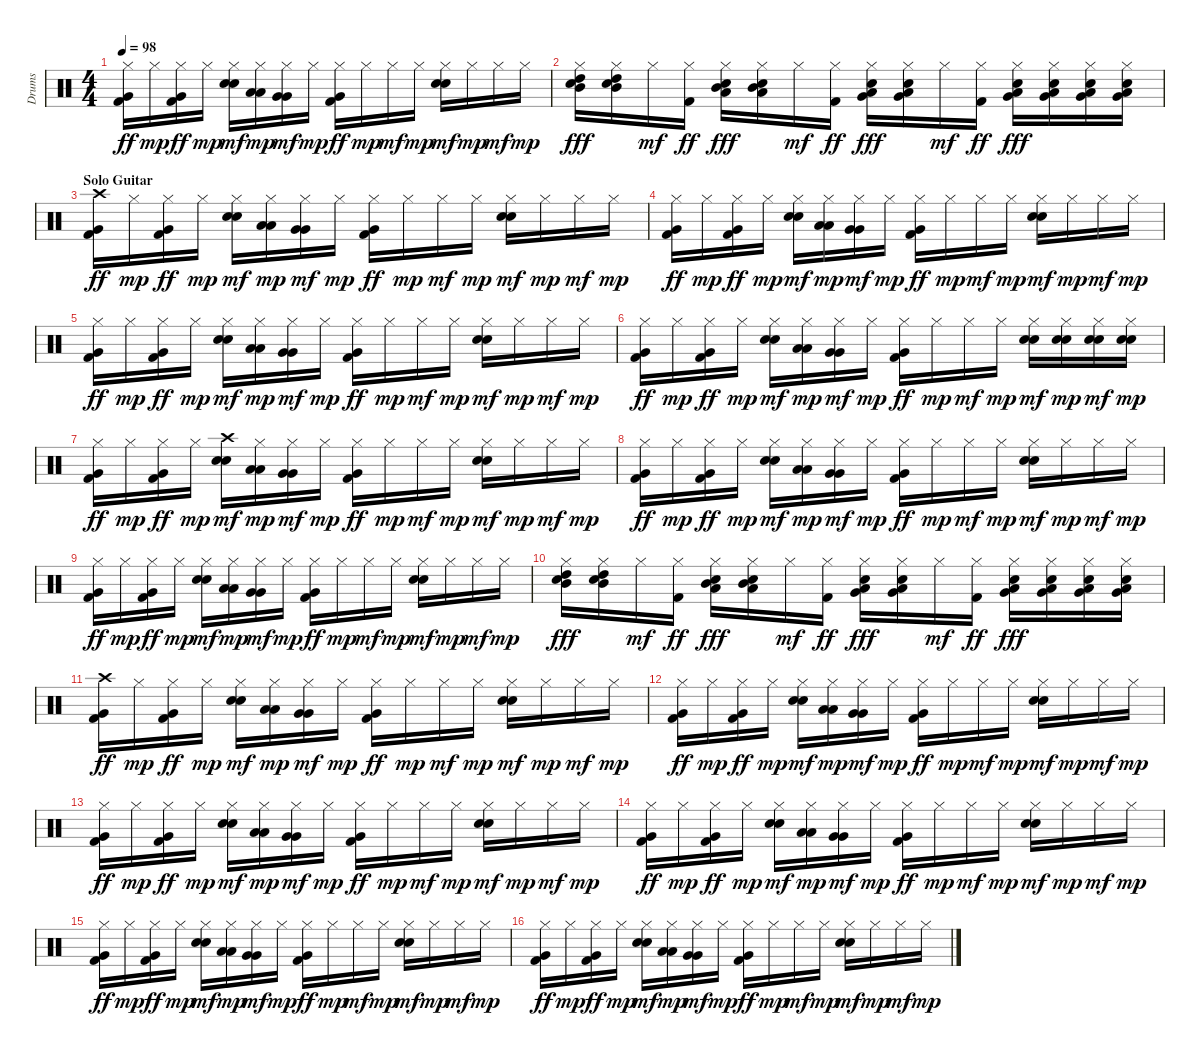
\track ("Drums" "Drums") {instrument percussion}
\staff {score}
\articulation defaults
\ts (4 4)
\tempo 98
\clef neutral
\ks c
("Hi-Hat (closed)" "Very Low Tom (hit)" "Kick (hit) 2").16{dy ff} "Hi-Hat (closed)".16{dy mp} ("Hi-Hat (closed)" "Very Low Tom (hit)" "Kick (hit) 2").16{dy ff} "Hi-Hat (closed)".16{dy mp} ("Hi-Hat (closed)" "Electric Snare (hit)" "Snare (hit) 2").16{dy mf} ("Hi-Hat (closed)" "Low Tom (hit)" "Low Tom (hit)").16{dy mp} ("Hi-Hat (closed)" "Very Low Tom (hit)" "Very Low Tom (hit)").16{dy mf} "Hi-Hat (closed)".16{dy mp} ("Hi-Hat (closed)" "Very Low Tom (hit)" "Kick (hit) 2").16{dy ff} "Hi-Hat (closed)".16{dy mp} "Hi-Hat (closed)".16{dy mf} "Hi-Hat (closed)".16{dy mp} ("Hi-Hat (closed)" "Electric Snare (hit)" "Snare (hit) 2").16{dy mf} "Hi-Hat (closed)".16{dy mp} "Hi-Hat (closed)".16{dy mf} "Hi-Hat (closed)".16{dy mp} |
("Hi-Hat (closed)" "High Tom (hit)" "Mid Tom (hit)" "Electric Snare (hit)").16{dy fff} ("Hi-Hat (closed)" "High Tom (hit)" "Mid Tom (hit)" "Electric Snare (hit)").16 "Hi-Hat (closed)".16{dy mf} ("Hi-Hat (closed)" "Kick (hit) 2").16{dy ff} ("Hi-Hat (closed)" "Mid Tom (hit)" "Low Tom (hit)" "Electric Snare (hit)").16{dy fff} ("Hi-Hat (closed)" "Mid Tom (hit)" "Low Tom (hit)" "Electric Snare (hit)").16 "Hi-Hat (closed)".16{dy mf} ("Hi-Hat (closed)" "Kick (hit) 2").16{dy ff} ("Hi-Hat (closed)" "Low Tom (hit)" "Very Low Tom (hit)" "Electric Snare (hit)").16{dy fff} ("Hi-Hat (closed)" "Low Tom (hit)" "Very Low Tom (hit)" "Electric Snare (hit)").16 "Hi-Hat (closed)".16{dy mf} ("Hi-Hat (closed)" "Kick (hit) 2").16{dy ff} ("Hi-Hat (closed)" "Very Low Tom (hit)" "Low Floor Tom (hit)" "Electric Snare (hit)").16{dy fff} ("Hi-Hat (closed)" "Very Low Tom (hit)" "Low Floor Tom (hit)" "Electric Snare (hit)").16 ("Hi-Hat (closed)" "Very Low Tom (hit)" "Low Floor Tom (hit)" "Electric Snare (hit)").16 ("Hi-Hat (closed)" "Very Low Tom (hit)" "Low Floor Tom (hit)" "Electric Snare (hit)").16 |
\section ("" "Solo Guitar")
("Crash high (hit)" "Very Low Tom (hit)" "Kick (hit) 2").16{dy ff} "Hi-Hat (closed)".16{dy mp} ("Hi-Hat (closed)" "Very Low Tom (hit)" "Kick (hit) 2").16{dy ff} "Hi-Hat (closed)".16{dy mp} ("Hi-Hat (closed)" "Electric Snare (hit)" "Snare (hit) 2").16{dy mf} ("Hi-Hat (closed)" "Low Tom (hit)" "Low Tom (hit)").16{dy mp} ("Hi-Hat (closed)" "Very Low Tom (hit)" "Very Low Tom (hit)").16{dy mf} "Hi-Hat (closed)".16{dy mp} ("Hi-Hat (closed)" "Very Low Tom (hit)" "Kick (hit) 2").16{dy ff} "Hi-Hat (closed)".16{dy mp} "Hi-Hat (closed)".16{dy mf} "Hi-Hat (closed)".16{dy mp} ("Hi-Hat (closed)" "Electric Snare (hit)" "Snare (hit) 2").16{dy mf} "Hi-Hat (closed)".16{dy mp} "Hi-Hat (closed)".16{dy mf} "Hi-Hat (closed)".16{dy mp} |
("Hi-Hat (closed)" "Very Low Tom (hit)" "Kick (hit) 2").16{dy ff} "Hi-Hat (closed)".16{dy mp} ("Hi-Hat (closed)" "Very Low Tom (hit)" "Kick (hit) 2").16{dy ff} "Hi-Hat (closed)".16{dy mp} ("Hi-Hat (closed)" "Electric Snare (hit)" "Snare (hit) 2").16{dy mf} ("Hi-Hat (closed)" "Low Tom (hit)" "Low Tom (hit)").16{dy mp} ("Hi-Hat (closed)" "Very Low Tom (hit)" "Very Low Tom (hit)").16{dy mf} "Hi-Hat (closed)".16{dy mp} ("Hi-Hat (closed)" "Very Low Tom (hit)" "Kick (hit) 2").16{dy ff} "Hi-Hat (closed)".16{dy mp} "Hi-Hat (closed)".16{dy mf} "Hi-Hat (closed)".16{dy mp} ("Hi-Hat (closed)" "Electric Snare (hit)" "Snare (hit) 2").16{dy mf} "Hi-Hat (closed)".16{dy mp} "Hi-Hat (closed)".16{dy mf} "Hi-Hat (closed)".16{dy mp} |
("Hi-Hat (closed)" "Very Low Tom (hit)" "Kick (hit) 2").16{dy ff} "Hi-Hat (closed)".16{dy mp} ("Hi-Hat (closed)" "Very Low Tom (hit)" "Kick (hit) 2").16{dy ff} "Hi-Hat (closed)".16{dy mp} ("Hi-Hat (closed)" "Electric Snare (hit)" "Snare (hit) 2").16{dy mf} ("Hi-Hat (closed)" "Low Tom (hit)" "Low Tom (hit)").16{dy mp} ("Hi-Hat (closed)" "Very Low Tom (hit)" "Very Low Tom (hit)").16{dy mf} "Hi-Hat (closed)".16{dy mp} ("Hi-Hat (closed)" "Very Low Tom (hit)" "Kick (hit) 2").16{dy ff} "Hi-Hat (closed)".16{dy mp} "Hi-Hat (closed)".16{dy mf} "Hi-Hat (closed)".16{dy mp} ("Hi-Hat (closed)" "Electric Snare (hit)" "Snare (hit) 2").16{dy mf} "Hi-Hat (closed)".16{dy mp} "Hi-Hat (closed)".16{dy mf} "Hi-Hat (closed)".16{dy mp} |
("Hi-Hat (closed)" "Very Low Tom (hit)" "Kick (hit) 2").16{dy ff} "Hi-Hat (closed)".16{dy mp} ("Hi-Hat (closed)" "Very Low Tom (hit)" "Kick (hit) 2").16{dy ff} "Hi-Hat (closed)".16{dy mp} ("Hi-Hat (closed)" "Electric Snare (hit)" "Snare (hit) 2").16{dy mf} ("Hi-Hat (closed)" "Low Tom (hit)" "Low Tom (hit)").16{dy mp} ("Hi-Hat (closed)" "Very Low Tom (hit)" "Very Low Tom (hit)").16{dy mf} "Hi-Hat (closed)".16{dy mp} ("Hi-Hat (closed)" "Very Low Tom (hit)" "Kick (hit) 2").16{dy ff} "Hi-Hat (closed)".16{dy mp} "Hi-Hat (closed)".16{dy mf} "Hi-Hat (closed)".16{dy mp} ("Hi-Hat (closed)" "Electric Snare (hit)" "Snare (hit) 2").16{dy mf} ("Hi-Hat (closed)" "Electric Snare (hit)" "Snare (hit) 2").16{dy mp} ("Hi-Hat (closed)" "Electric Snare (hit)" "Snare (hit) 2").16{dy mf} ("Hi-Hat (closed)" "Electric Snare (hit)" "Snare (hit) 2").16{dy mp} |
("Hi-Hat (closed)" "Very Low Tom (hit)" "Kick (hit) 2").16{dy ff} "Hi-Hat (closed)".16{dy mp} ("Hi-Hat (closed)" "Very Low Tom (hit)" "Kick (hit) 2").16{dy ff} "Hi-Hat (closed)".16{dy mp} ("Crash high (hit)" "Electric Snare (hit)" "Snare (hit) 2").16{dy mf} ("Hi-Hat (closed)" "Low Tom (hit)" "Low Tom (hit)").16{dy mp} ("Hi-Hat (closed)" "Very Low Tom (hit)" "Very Low Tom (hit)").16{dy mf} "Hi-Hat (closed)".16{dy mp} ("Hi-Hat (closed)" "Very Low Tom (hit)" "Kick (hit) 2").16{dy ff} "Hi-Hat (closed)".16{dy mp} "Hi-Hat (closed)".16{dy mf} "Hi-Hat (closed)".16{dy mp} ("Hi-Hat (closed)" "Electric Snare (hit)" "Snare (hit) 2").16{dy mf} "Hi-Hat (closed)".16{dy mp} "Hi-Hat (closed)".16{dy mf} "Hi-Hat (closed)".16{dy mp} |
("Hi-Hat (closed)" "Very Low Tom (hit)" "Kick (hit) 2").16{dy ff} "Hi-Hat (closed)".16{dy mp} ("Hi-Hat (closed)" "Very Low Tom (hit)" "Kick (hit) 2").16{dy ff} "Hi-Hat (closed)".16{dy mp} ("Hi-Hat (closed)" "Electric Snare (hit)" "Snare (hit) 2").16{dy mf} ("Hi-Hat (closed)" "Low Tom (hit)" "Low Tom (hit)").16{dy mp} ("Hi-Hat (closed)" "Very Low Tom (hit)" "Very Low Tom (hit)").16{dy mf} "Hi-Hat (closed)".16{dy mp} ("Hi-Hat (closed)" "Very Low Tom (hit)" "Kick (hit) 2").16{dy ff} "Hi-Hat (closed)".16{dy mp} "Hi-Hat (closed)".16{dy mf} "Hi-Hat (closed)".16{dy mp} ("Hi-Hat (closed)" "Electric Snare (hit)" "Snare (hit) 2").16{dy mf} "Hi-Hat (closed)".16{dy mp} "Hi-Hat (closed)".16{dy mf} "Hi-Hat (closed)".16{dy mp} |
("Hi-Hat (closed)" "Very Low Tom (hit)" "Kick (hit) 2").16{dy ff} "Hi-Hat (closed)".16{dy mp} ("Hi-Hat (closed)" "Very Low Tom (hit)" "Kick (hit) 2").16{dy ff} "Hi-Hat (closed)".16{dy mp} ("Hi-Hat (closed)" "Electric Snare (hit)" "Snare (hit) 2").16{dy mf} ("Hi-Hat (closed)" "Low Tom (hit)" "Low Tom (hit)").16{dy mp} ("Hi-Hat (closed)" "Very Low Tom (hit)" "Very Low Tom (hit)").16{dy mf} "Hi-Hat (closed)".16{dy mp} ("Hi-Hat (closed)" "Very Low Tom (hit)" "Kick (hit) 2").16{dy ff} "Hi-Hat (closed)".16{dy mp} "Hi-Hat (closed)".16{dy mf} "Hi-Hat (closed)".16{dy mp} ("Hi-Hat (closed)" "Electric Snare (hit)" "Snare (hit) 2").16{dy mf} "Hi-Hat (closed)".16{dy mp} "Hi-Hat (closed)".16{dy mf} "Hi-Hat (closed)".16{dy mp} |
("Hi-Hat (closed)" "High Tom (hit)" "Mid Tom (hit)" "Electric Snare (hit)").16{dy fff} ("Hi-Hat (closed)" "High Tom (hit)" "Mid Tom (hit)" "Electric Snare (hit)").16 "Hi-Hat (closed)".16{dy mf} ("Hi-Hat (closed)" "Kick (hit) 2").16{dy ff} ("Hi-Hat (closed)" "Mid Tom (hit)" "Low Tom (hit)" "Electric Snare (hit)").16{dy fff} ("Hi-Hat (closed)" "Mid Tom (hit)" "Low Tom (hit)" "Electric Snare (hit)").16 "Hi-Hat (closed)".16{dy mf} ("Hi-Hat (closed)" "Kick (hit) 2").16{dy ff} ("Hi-Hat (closed)" "Low Tom (hit)" "Very Low Tom (hit)" "Electric Snare (hit)").16{dy fff} ("Hi-Hat (closed)" "Low Tom (hit)" "Very Low Tom (hit)" "Electric Snare (hit)").16 "Hi-Hat (closed)".16{dy mf} ("Hi-Hat (closed)" "Kick (hit) 2").16{dy ff} ("Hi-Hat (closed)" "Very Low Tom (hit)" "Low Floor Tom (hit)" "Electric Snare (hit)").16{dy fff} ("Hi-Hat (closed)" "Very Low Tom (hit)" "Low Floor Tom (hit)" "Electric Snare (hit)").16 ("Hi-Hat (closed)" "Very Low Tom (hit)" "Low Floor Tom (hit)" "Electric Snare (hit)").16 ("Hi-Hat (closed)" "Very Low Tom (hit)" "Low Floor Tom (hit)" "Electric Snare (hit)").16 |
("Crash high (hit)" "Very Low Tom (hit)" "Kick (hit) 2").16{dy ff} "Hi-Hat (closed)".16{dy mp} ("Hi-Hat (closed)" "Very Low Tom (hit)" "Kick (hit) 2").16{dy ff} "Hi-Hat (closed)".16{dy mp} ("Hi-Hat (closed)" "Electric Snare (hit)" "Snare (hit) 2").16{dy mf} ("Hi-Hat (closed)" "Low Tom (hit)" "Low Tom (hit)").16{dy mp} ("Hi-Hat (closed)" "Very Low Tom (hit)" "Very Low Tom (hit)").16{dy mf} "Hi-Hat (closed)".16{dy mp} ("Hi-Hat (closed)" "Very Low Tom (hit)" "Kick (hit) 2").16{dy ff} "Hi-Hat (closed)".16{dy mp} "Hi-Hat (closed)".16{dy mf} "Hi-Hat (closed)".16{dy mp} ("Hi-Hat (closed)" "Electric Snare (hit)" "Snare (hit) 2").16{dy mf} "Hi-Hat (closed)".16{dy mp} "Hi-Hat (closed)".16{dy mf} "Hi-Hat (closed)".16{dy mp} |
("Hi-Hat (closed)" "Very Low Tom (hit)" "Kick (hit) 2").16{dy ff} "Hi-Hat (closed)".16{dy mp} ("Hi-Hat (closed)" "Very Low Tom (hit)" "Kick (hit) 2").16{dy ff} "Hi-Hat (closed)".16{dy mp} ("Hi-Hat (closed)" "Electric Snare (hit)" "Snare (hit) 2").16{dy mf} ("Hi-Hat (closed)" "Low Tom (hit)" "Low Tom (hit)").16{dy mp} ("Hi-Hat (closed)" "Very Low Tom (hit)" "Very Low Tom (hit)").16{dy mf} "Hi-Hat (closed)".16{dy mp} ("Hi-Hat (closed)" "Very Low Tom (hit)" "Kick (hit) 2").16{dy ff} "Hi-Hat (closed)".16{dy mp} "Hi-Hat (closed)".16{dy mf} "Hi-Hat (closed)".16{dy mp} ("Hi-Hat (closed)" "Electric Snare (hit)" "Snare (hit) 2").16{dy mf} "Hi-Hat (closed)".16{dy mp} "Hi-Hat (closed)".16{dy mf} "Hi-Hat (closed)".16{dy mp} |
("Hi-Hat (closed)" "Very Low Tom (hit)" "Kick (hit) 2").16{dy ff} "Hi-Hat (closed)".16{dy mp} ("Hi-Hat (closed)" "Very Low Tom (hit)" "Kick (hit) 2").16{dy ff} "Hi-Hat (closed)".16{dy mp} ("Hi-Hat (closed)" "Electric Snare (hit)" "Snare (hit) 2").16{dy mf} ("Hi-Hat (closed)" "Low Tom (hit)" "Low Tom (hit)").16{dy mp} ("Hi-Hat (closed)" "Very Low Tom (hit)" "Very Low Tom (hit)").16{dy mf} "Hi-Hat (closed)".16{dy mp} ("Hi-Hat (closed)" "Very Low Tom (hit)" "Kick (hit) 2").16{dy ff} "Hi-Hat (closed)".16{dy mp} "Hi-Hat (closed)".16{dy mf} "Hi-Hat (closed)".16{dy mp} ("Hi-Hat (closed)" "Electric Snare (hit)" "Snare (hit) 2").16{dy mf} "Hi-Hat (closed)".16{dy mp} "Hi-Hat (closed)".16{dy mf} "Hi-Hat (closed)".16{dy mp} |
("Hi-Hat (closed)" "Very Low Tom (hit)" "Kick (hit) 2").16{dy ff} "Hi-Hat (closed)".16{dy mp} ("Hi-Hat (closed)" "Very Low Tom (hit)" "Kick (hit) 2").16{dy ff} "Hi-Hat (closed)".16{dy mp} ("Hi-Hat (closed)" "Electric Snare (hit)" "Snare (hit) 2").16{dy mf} ("Hi-Hat (closed)" "Low Tom (hit)" "Low Tom (hit)").16{dy mp} ("Hi-Hat (closed)" "Very Low Tom (hit)" "Very Low Tom (hit)").16{dy mf} "Hi-Hat (closed)".16{dy mp} ("Hi-Hat (closed)" "Very Low Tom (hit)" "Kick (hit) 2").16{dy ff} "Hi-Hat (closed)".16{dy mp} "Hi-Hat (closed)".16{dy mf} "Hi-Hat (closed)".16{dy mp} ("Hi-Hat (closed)" "Electric Snare (hit)" "Snare (hit) 2").16{dy mf} "Hi-Hat (closed)".16{dy mp} "Hi-Hat (closed)".16{dy mf} "Hi-Hat (closed)".16{dy mp} |
("Hi-Hat (closed)" "Very Low Tom (hit)" "Kick (hit) 2").16{dy ff} "Hi-Hat (closed)".16{dy mp} ("Hi-Hat (closed)" "Very Low Tom (hit)" "Kick (hit) 2").16{dy ff} "Hi-Hat (closed)".16{dy mp} ("Hi-Hat (closed)" "Electric Snare (hit)" "Snare (hit) 2").16{dy mf} ("Hi-Hat (closed)" "Low Tom (hit)" "Low Tom (hit)").16{dy mp} ("Hi-Hat (closed)" "Very Low Tom (hit)" "Very Low Tom (hit)").16{dy mf} "Hi-Hat (closed)".16{dy mp} ("Hi-Hat (closed)" "Very Low Tom (hit)" "Kick (hit) 2").16{dy ff} "Hi-Hat (closed)".16{dy mp} "Hi-Hat (closed)".16{dy mf} "Hi-Hat (closed)".16{dy mp} ("Hi-Hat (closed)" "Electric Snare (hit)" "Snare (hit) 2").16{dy mf} "Hi-Hat (closed)".16{dy mp} "Hi-Hat (closed)".16{dy mf} "Hi-Hat (closed)".16{dy mp} |
("Hi-Hat (closed)" "Very Low Tom (hit)" "Kick (hit) 2").16{dy ff} "Hi-Hat (closed)".16{dy mp} ("Hi-Hat (closed)" "Very Low Tom (hit)" "Kick (hit) 2").16{dy ff} "Hi-Hat (closed)".16{dy mp} ("Hi-Hat (closed)" "Electric Snare (hit)" "Snare (hit) 2").16{dy mf} ("Hi-Hat (closed)" "Low Tom (hit)" "Low Tom (hit)").16{dy mp} ("Hi-Hat (closed)" "Very Low Tom (hit)" "Very Low Tom (hit)").16{dy mf} "Hi-Hat (closed)".16{dy mp} ("Hi-Hat (closed)" "Very Low Tom (hit)" "Kick (hit) 2").16{dy ff} "Hi-Hat (closed)".16{dy mp} "Hi-Hat (closed)".16{dy mf} "Hi-Hat (closed)".16{dy mp} ("Hi-Hat (closed)" "Electric Snare (hit)" "Snare (hit) 2").16{dy mf} "Hi-Hat (closed)".16{dy mp} "Hi-Hat (closed)".16{dy mf} "Hi-Hat (closed)".16{dy mp}
